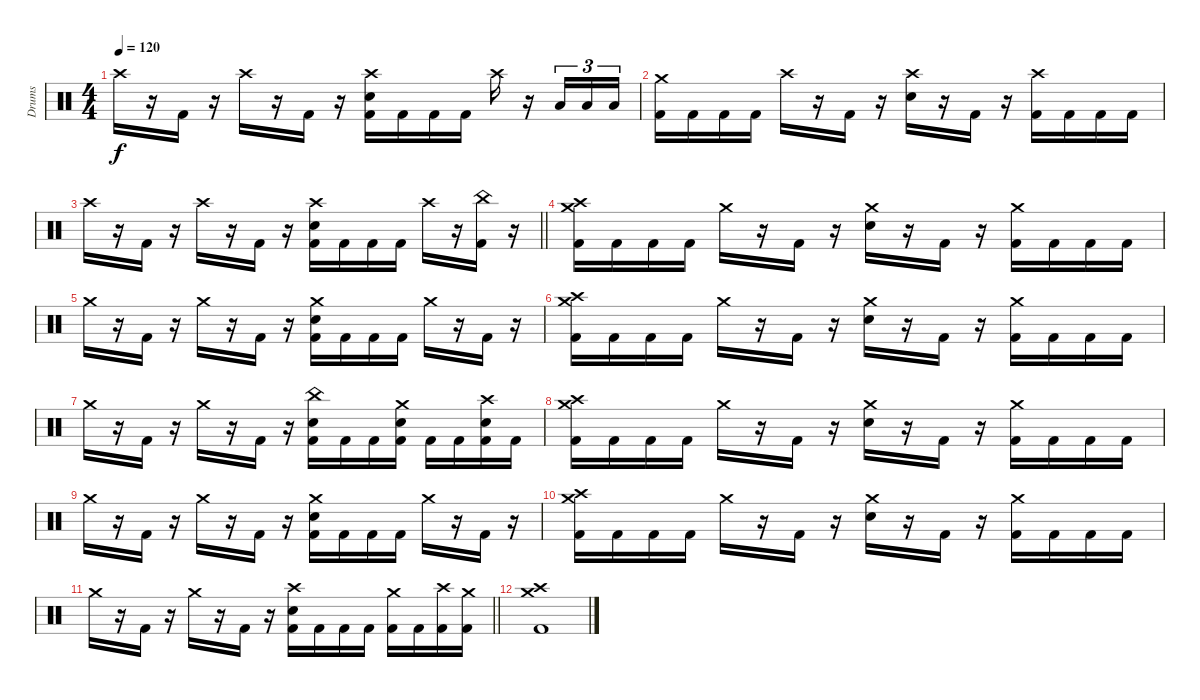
\track ("Drums " "Drums ") {instrument percussion}
\staff {score}
\articulation defaults
\ts (4 4)
\tempo 120
\clef neutral
\ks c "Crash high (hit)".16{dy f}
r.16 "Kick (hit) 2".16 r.16 "Crash high (hit)".16 r.16 "Kick (hit) 2".16 r.16 ("Crash high (hit)" "Electric Snare (hit)" "Kick (hit) 2").16 "Kick (hit) 2".16 "Kick (hit) 2".16 "Kick (hit) 2".16 "Crash high (hit)".16 r.16 "Low Tom (hit)".16{tu (3 2)} "Low Tom (hit)".16{tu (3 2)} "Low Tom (hit)".16{tu (3 2)} |
("Crash medium (hit)" "Kick (hit) 2").16 "Kick (hit) 2".16 "Kick (hit) 2".16 "Kick (hit) 2".16 "Crash high (hit)".16 r.16 "Kick (hit) 2".16 r.16 ("Crash high (hit)" "Electric Snare (hit)").16 r.16 "Kick (hit) 2".16 r.16 ("Crash high (hit)" "Kick (hit) 2").16 "Kick (hit) 2".16 "Kick (hit) 2".16 "Kick (hit) 2".16 |
\barLineRight lightlight "Crash high (hit)".16
r.16 "Kick (hit) 2".16 r.16 "Crash high (hit)".16 r.16 "Kick (hit) 2".16 r.16 ("Crash high (hit)" "Electric Snare (hit)" "Kick (hit) 2").16 "Kick (hit) 2".16 "Kick (hit) 2".16 "Kick (hit) 2".16 "Crash high (hit)".16 r.16 ("China (hit)" "Kick (hit) 2").16 r.16 |
\section ("" "")
("Crash medium (hit)" "Crash high (hit)" "Kick (hit) 2").16 "Kick (hit) 2".16 "Kick (hit) 2".16 "Kick (hit) 2".16 "Crash medium (hit)".16 r.16 "Kick (hit) 2".16 r.16 ("Crash medium (hit)" "Electric Snare (hit)").16 r.16 "Kick (hit) 2".16 r.16 ("Crash medium (hit)" "Kick (hit) 2").16 "Kick (hit) 2".16 "Kick (hit) 2".16 "Kick (hit) 2".16 |
"Crash medium (hit)".16 r.16 "Kick (hit) 2".16 r.16 "Crash medium (hit)".16 r.16 "Kick (hit) 2".16 r.16 ("Crash medium (hit)" "Electric Snare (hit)" "Kick (hit) 2").16 "Kick (hit) 2".16 "Kick (hit) 2".16 "Kick (hit) 2".16 "Crash medium (hit)".16 r.16 "Kick (hit) 2".16 r.16 |
("Crash medium (hit)" "Crash high (hit)" "Kick (hit) 2").16 "Kick (hit) 2".16 "Kick (hit) 2".16 "Kick (hit) 2".16 "Crash medium (hit)".16 r.16 "Kick (hit) 2".16 r.16 ("Crash medium (hit)" "Electric Snare (hit)").16 r.16 "Kick (hit) 2".16 r.16 ("Crash medium (hit)" "Kick (hit) 2").16 "Kick (hit) 2".16 "Kick (hit) 2".16 "Kick (hit) 2".16 |
"Crash medium (hit)".16 r.16 "Kick (hit) 2".16 r.16 "Crash medium (hit)".16 r.16 "Kick (hit) 2".16 r.16 ("China (hit)" "Electric Snare (hit)" "Kick (hit) 2").16 "Kick (hit) 2".16 "Kick (hit) 2".16 ("Crash medium (hit)" "Electric Snare (hit)" "Kick (hit) 2").16 "Kick (hit) 2".16 "Kick (hit) 2".16 ("Crash high (hit)" "Electric Snare (hit)" "Kick (hit) 2").16 "Kick (hit) 2".16 |
("Crash medium (hit)" "Crash high (hit)" "Kick (hit) 2").16 "Kick (hit) 2".16 "Kick (hit) 2".16 "Kick (hit) 2".16 "Crash medium (hit)".16 r.16 "Kick (hit) 2".16 r.16 ("Crash medium (hit)" "Electric Snare (hit)").16 r.16 "Kick (hit) 2".16 r.16 ("Crash medium (hit)" "Kick (hit) 2").16 "Kick (hit) 2".16 "Kick (hit) 2".16 "Kick (hit) 2".16 |
"Crash medium (hit)".16 r.16 "Kick (hit) 2".16 r.16 "Crash medium (hit)".16 r.16 "Kick (hit) 2".16 r.16 ("Crash medium (hit)" "Electric Snare (hit)" "Kick (hit) 2").16 "Kick (hit) 2".16 "Kick (hit) 2".16 "Kick (hit) 2".16 "Crash medium (hit)".16 r.16 "Kick (hit) 2".16 r.16 |
("Crash medium (hit)" "Crash high (hit)" "Kick (hit) 2").16 "Kick (hit) 2".16 "Kick (hit) 2".16 "Kick (hit) 2".16 "Crash medium (hit)".16 r.16 "Kick (hit) 2".16 r.16 ("Crash medium (hit)" "Electric Snare (hit)").16 r.16 "Kick (hit) 2".16 r.16 ("Crash medium (hit)" "Kick (hit) 2").16 "Kick (hit) 2".16 "Kick (hit) 2".16 "Kick (hit) 2".16 |
\barLineRight lightlight "Crash medium (hit)".16
r.16 "Kick (hit) 2".16 r.16 "Crash medium (hit)".16 r.16 "Kick (hit) 2".16 r.16 ("Crash high (hit)" "Electric Snare (hit)" "Kick (hit) 2").16 "Kick (hit) 2".16 "Kick (hit) 2".16 "Kick (hit) 2".16 ("Crash medium (hit)" "Kick (hit) 2").16 "Kick (hit) 2".16 ("Crash high (hit)" "Kick (hit) 2").16 ("Crash medium (hit)" "Kick (hit) 2").16 |
("Crash high (hit)" "Crash medium (hit)" "Kick (hit) 2").1
